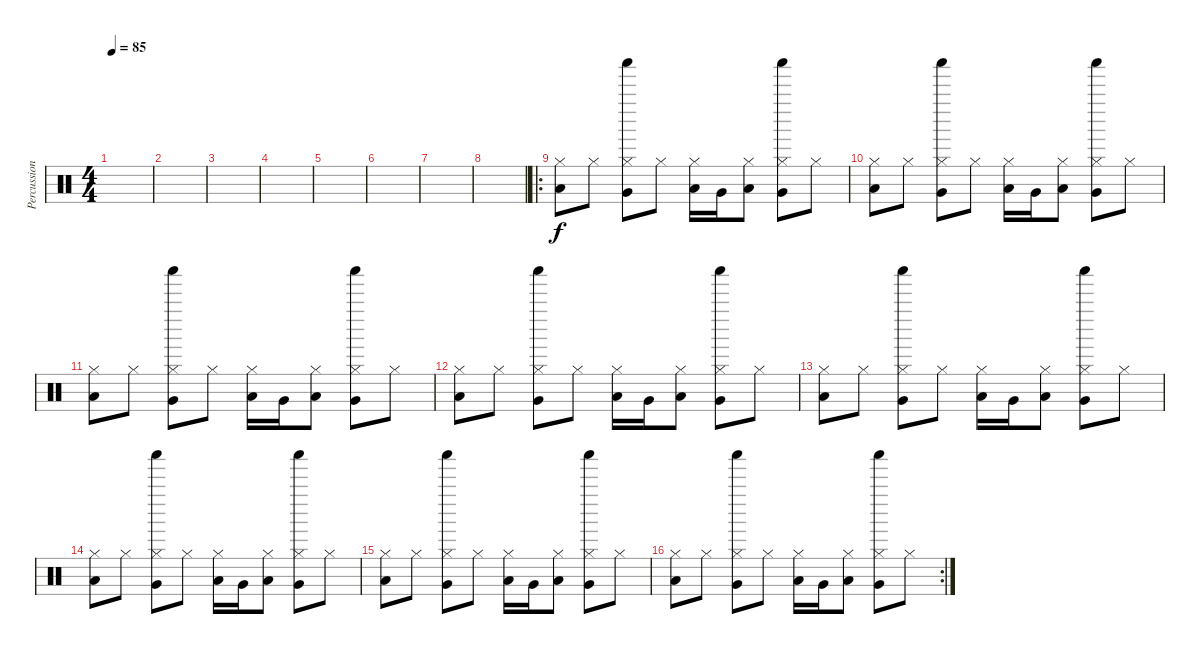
\track ("Percussion" "Percussion") {instrument percussion}
\staff {score}
\articulation defaults
\ts (4 4)
\tempo 85
\clef neutral
\ks c
|
|
|
|
|
|
|
|
\ro
("Low Floor Tom (hit)" "Hi-Hat (closed)").8 "Hi-Hat (closed)".8 ("Very Low Tom (hit)" "Hi-Hat (closed)" "Shaker (hit)").8 "Hi-Hat (closed)".8 ("Low Floor Tom (hit)" "Hi-Hat (closed)").16 "Very Low Tom (hit)".16 ("Low Floor Tom (hit)" "Hi-Hat (closed)").8 ("Very Low Tom (hit)" "Hi-Hat (closed)" "Shaker (hit)").8 "Hi-Hat (closed)".8 |
("Low Floor Tom (hit)" "Hi-Hat (closed)").8 "Hi-Hat (closed)".8 ("Very Low Tom (hit)" "Hi-Hat (closed)" "Shaker (hit)").8 "Hi-Hat (closed)".8 ("Low Floor Tom (hit)" "Hi-Hat (closed)").16 "Very Low Tom (hit)".16 ("Low Floor Tom (hit)" "Hi-Hat (closed)").8 ("Very Low Tom (hit)" "Hi-Hat (closed)" "Shaker (hit)").8 "Hi-Hat (closed)".8 |
("Low Floor Tom (hit)" "Hi-Hat (closed)").8 "Hi-Hat (closed)".8 ("Very Low Tom (hit)" "Hi-Hat (closed)" "Shaker (hit)").8 "Hi-Hat (closed)".8 ("Low Floor Tom (hit)" "Hi-Hat (closed)").16 "Very Low Tom (hit)".16 ("Low Floor Tom (hit)" "Hi-Hat (closed)").8 ("Very Low Tom (hit)" "Hi-Hat (closed)" "Shaker (hit)").8 "Hi-Hat (closed)".8 |
("Low Floor Tom (hit)" "Hi-Hat (closed)").8 "Hi-Hat (closed)".8 ("Very Low Tom (hit)" "Hi-Hat (closed)" "Shaker (hit)").8 "Hi-Hat (closed)".8 ("Low Floor Tom (hit)" "Hi-Hat (closed)").16 "Very Low Tom (hit)".16 ("Low Floor Tom (hit)" "Hi-Hat (closed)").8 ("Very Low Tom (hit)" "Hi-Hat (closed)" "Shaker (hit)").8 "Hi-Hat (closed)".8 |
("Low Floor Tom (hit)" "Hi-Hat (closed)").8 "Hi-Hat (closed)".8 ("Very Low Tom (hit)" "Hi-Hat (closed)" "Shaker (hit)").8 "Hi-Hat (closed)".8 ("Low Floor Tom (hit)" "Hi-Hat (closed)").16 "Very Low Tom (hit)".16 ("Low Floor Tom (hit)" "Hi-Hat (closed)").8 ("Very Low Tom (hit)" "Hi-Hat (closed)" "Shaker (hit)").8 "Hi-Hat (closed)".8 |
("Low Floor Tom (hit)" "Hi-Hat (closed)").8 "Hi-Hat (closed)".8 ("Very Low Tom (hit)" "Hi-Hat (closed)" "Shaker (hit)").8 "Hi-Hat (closed)".8 ("Low Floor Tom (hit)" "Hi-Hat (closed)").16 "Very Low Tom (hit)".16 ("Low Floor Tom (hit)" "Hi-Hat (closed)").8 ("Very Low Tom (hit)" "Hi-Hat (closed)" "Shaker (hit)").8 "Hi-Hat (closed)".8 |
("Low Floor Tom (hit)" "Hi-Hat (closed)").8 "Hi-Hat (closed)".8 ("Very Low Tom (hit)" "Hi-Hat (closed)" "Shaker (hit)").8 "Hi-Hat (closed)".8 ("Low Floor Tom (hit)" "Hi-Hat (closed)").16 "Very Low Tom (hit)".16 ("Low Floor Tom (hit)" "Hi-Hat (closed)").8 ("Very Low Tom (hit)" "Hi-Hat (closed)" "Shaker (hit)").8 "Hi-Hat (closed)".8 |
\rc 2
("Low Floor Tom (hit)" "Hi-Hat (closed)").8 "Hi-Hat (closed)".8 ("Very Low Tom (hit)" "Hi-Hat (closed)" "Shaker (hit)").8 "Hi-Hat (closed)".8 ("Low Floor Tom (hit)" "Hi-Hat (closed)").16 "Very Low Tom (hit)".16 ("Low Floor Tom (hit)" "Hi-Hat (closed)").8 ("Very Low Tom (hit)" "Hi-Hat (closed)" "Shaker (hit)").8 "Hi-Hat (closed)".8
